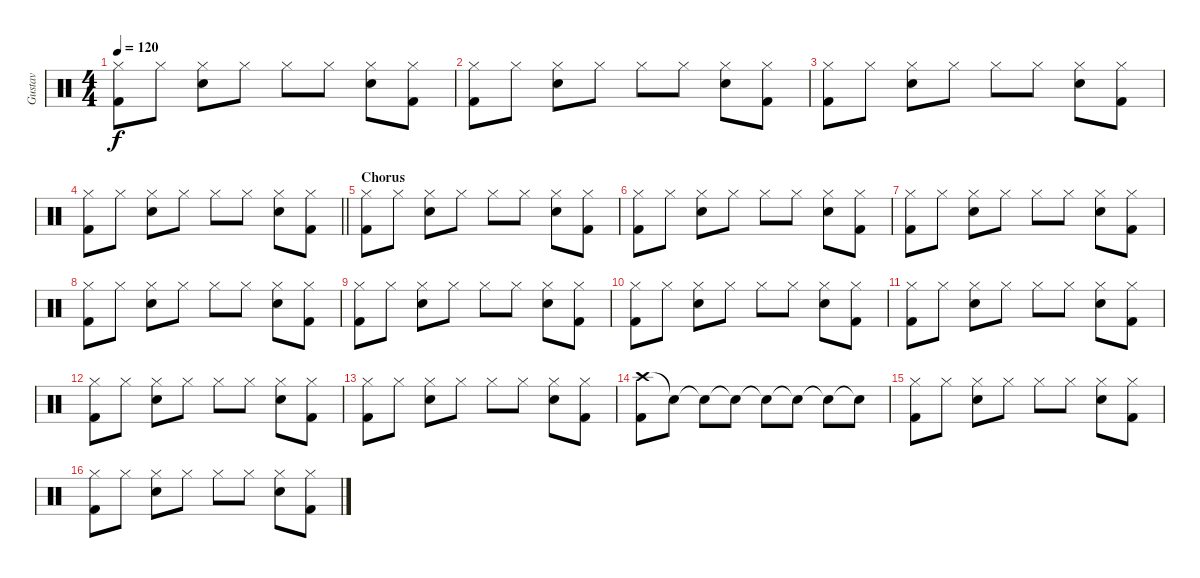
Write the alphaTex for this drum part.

\track ("Gustav" "Gustav") {instrument percussion}
\staff {score}
\articulation defaults
\ts (4 4)
\tempo 120
\clef neutral
\ks c
("Kick (hit) 2" "Hi-Hat (closed)").8{dy f} "Hi-Hat (closed)".8 ("Hi-Hat (closed)" "Snare (hit) 2").8 "Hi-Hat (closed)".8 "Hi-Hat (closed)".8 "Hi-Hat (closed)".8 ("Snare (hit) 2" "Hi-Hat (closed)").8 ("Hi-Hat (closed)" "Kick (hit) 2").8 |
("Kick (hit) 2" "Hi-Hat (closed)").8 "Hi-Hat (closed)".8 ("Hi-Hat (closed)" "Snare (hit) 2").8 "Hi-Hat (closed)".8 "Hi-Hat (closed)".8 "Hi-Hat (closed)".8 ("Snare (hit) 2" "Hi-Hat (closed)").8 ("Hi-Hat (closed)" "Kick (hit) 2").8 |
("Kick (hit) 2" "Hi-Hat (closed)").8 "Hi-Hat (closed)".8 ("Hi-Hat (closed)" "Snare (hit) 2").8 "Hi-Hat (closed)".8 "Hi-Hat (closed)".8 "Hi-Hat (closed)".8 ("Snare (hit) 2" "Hi-Hat (closed)").8 ("Hi-Hat (closed)" "Kick (hit) 2").8 |
\barLineRight lightlight
("Kick (hit) 2" "Hi-Hat (closed)").8 "Hi-Hat (closed)".8 ("Hi-Hat (closed)" "Snare (hit) 2").8 "Hi-Hat (closed)".8 "Hi-Hat (closed)".8 "Hi-Hat (closed)".8 ("Snare (hit) 2" "Hi-Hat (closed)").8 ("Hi-Hat (closed)" "Kick (hit) 2").8 |
\section ("" "Chorus")
("Kick (hit) 2" "Hi-Hat (closed)").8 "Hi-Hat (closed)".8 ("Hi-Hat (closed)" "Snare (hit) 2").8 "Hi-Hat (closed)".8 "Hi-Hat (closed)".8 "Hi-Hat (closed)".8 ("Snare (hit) 2" "Hi-Hat (closed)").8 ("Hi-Hat (closed)" "Kick (hit) 2").8 |
("Kick (hit) 2" "Hi-Hat (closed)").8 "Hi-Hat (closed)".8 ("Hi-Hat (closed)" "Snare (hit) 2").8 "Hi-Hat (closed)".8 "Hi-Hat (closed)".8 "Hi-Hat (closed)".8 ("Snare (hit) 2" "Hi-Hat (closed)").8 ("Hi-Hat (closed)" "Kick (hit) 2").8 |
("Kick (hit) 2" "Hi-Hat (closed)").8 "Hi-Hat (closed)".8 ("Hi-Hat (closed)" "Snare (hit) 2").8 "Hi-Hat (closed)".8 "Hi-Hat (closed)".8 "Hi-Hat (closed)".8 ("Snare (hit) 2" "Hi-Hat (closed)").8 ("Hi-Hat (closed)" "Kick (hit) 2").8 |
("Kick (hit) 2" "Hi-Hat (closed)").8 "Hi-Hat (closed)".8 ("Hi-Hat (closed)" "Snare (hit) 2").8 "Hi-Hat (closed)".8 "Hi-Hat (closed)".8 "Hi-Hat (closed)".8 ("Snare (hit) 2" "Hi-Hat (closed)").8 ("Hi-Hat (closed)" "Kick (hit) 2").8 |
("Kick (hit) 2" "Hi-Hat (closed)").8 "Hi-Hat (closed)".8 ("Hi-Hat (closed)" "Snare (hit) 2").8 "Hi-Hat (closed)".8 "Hi-Hat (closed)".8 "Hi-Hat (closed)".8 ("Snare (hit) 2" "Hi-Hat (closed)").8 ("Hi-Hat (closed)" "Kick (hit) 2").8 |
("Kick (hit) 2" "Hi-Hat (closed)").8 "Hi-Hat (closed)".8 ("Hi-Hat (closed)" "Snare (hit) 2").8 "Hi-Hat (closed)".8 "Hi-Hat (closed)".8 "Hi-Hat (closed)".8 ("Snare (hit) 2" "Hi-Hat (closed)").8 ("Hi-Hat (closed)" "Kick (hit) 2").8 |
("Kick (hit) 2" "Hi-Hat (closed)").8 "Hi-Hat (closed)".8 ("Hi-Hat (closed)" "Snare (hit) 2").8 "Hi-Hat (closed)".8 "Hi-Hat (closed)".8 "Hi-Hat (closed)".8 ("Snare (hit) 2" "Hi-Hat (closed)").8 ("Hi-Hat (closed)" "Kick (hit) 2").8 |
("Kick (hit) 2" "Hi-Hat (closed)").8 "Hi-Hat (closed)".8 ("Hi-Hat (closed)" "Snare (hit) 2").8 "Hi-Hat (closed)".8 "Hi-Hat (closed)".8 "Hi-Hat (closed)".8 ("Snare (hit) 2" "Hi-Hat (closed)").8 ("Hi-Hat (closed)" "Kick (hit) 2").8 |
("Kick (hit) 2" "Hi-Hat (closed)").8 "Hi-Hat (closed)".8 ("Hi-Hat (closed)" "Snare (hit) 2").8 "Hi-Hat (closed)".8 "Hi-Hat (closed)".8 "Hi-Hat (closed)".8 ("Snare (hit) 2" "Hi-Hat (closed)").8 ("Hi-Hat (closed)" "Kick (hit) 2").8 |
("Crash high (hit)" "Kick (hit) 2").8 "Snare (hit)"{t}.8 "Snare (hit)"{t}.8 "Snare (hit)"{t}.8 "Snare (hit)"{t}.8 "Snare (hit)"{t}.8 "Snare (hit)"{t}.8 "Snare (hit)"{t}.8 |
("Kick (hit) 2" "Hi-Hat (closed)").8 "Hi-Hat (closed)".8 ("Hi-Hat (closed)" "Snare (hit) 2").8 "Hi-Hat (closed)".8 "Hi-Hat (closed)".8 "Hi-Hat (closed)".8 ("Snare (hit) 2" "Hi-Hat (closed)").8 ("Hi-Hat (closed)" "Kick (hit) 2").8 |
("Kick (hit) 2" "Hi-Hat (closed)").8 "Hi-Hat (closed)".8 ("Hi-Hat (closed)" "Snare (hit) 2").8 "Hi-Hat (closed)".8 "Hi-Hat (closed)".8 "Hi-Hat (closed)".8 ("Snare (hit) 2" "Hi-Hat (closed)").8 ("Hi-Hat (closed)" "Kick (hit) 2").8
